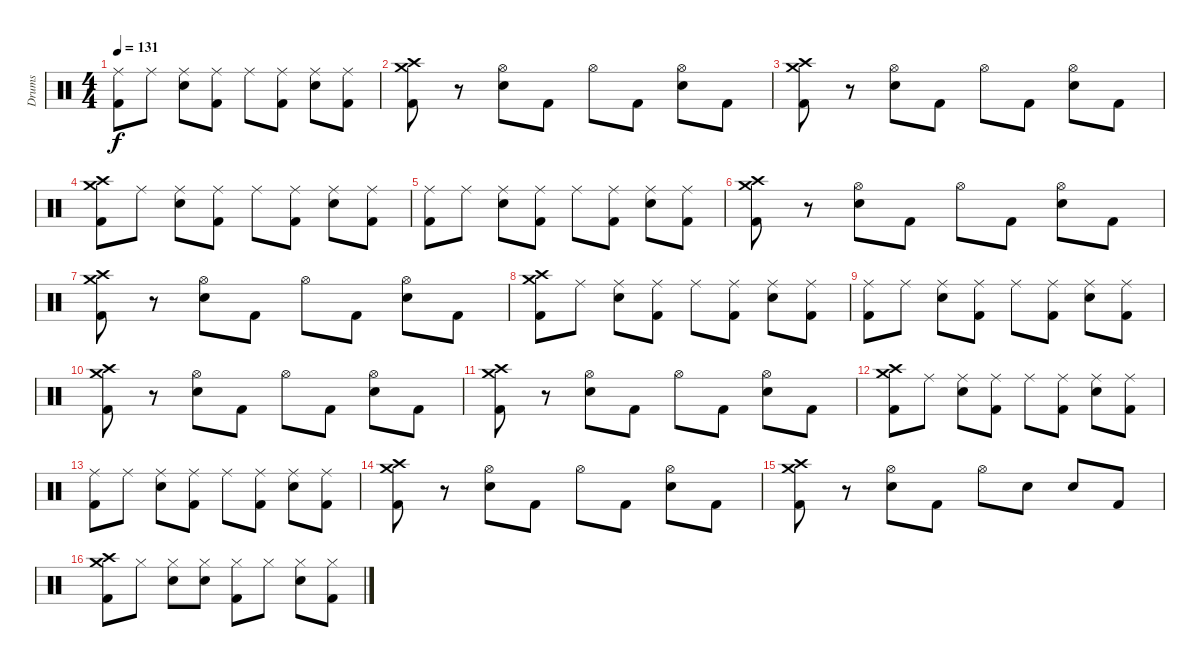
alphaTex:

\track ("Drums" "Drums") {instrument percussion}
\staff {score}
\articulation defaults
\ts (4 4)
\tempo 131
\clef neutral
\ks c
("Ride (middle)" "Kick (hit) 2").8{dy f} "Ride (middle)".8 ("Ride (middle)" "Snare (hit) 2").8 ("Ride (middle)" "Kick (hit) 2").8 "Ride (middle)".8 ("Ride (middle)" "Kick (hit) 2").8 ("Ride (middle)" "Snare (hit) 2").8 ("Ride (middle)" "Kick (hit) 2").8 |
("Crash high (hit)" "Crash medium (hit)" "Kick (hit) 2").8 r.8 ("Hi-Hat (open)" "Snare (hit) 2").8 "Kick (hit) 2".8 "Hi-Hat (open)".8 "Kick (hit) 2".8 ("Hi-Hat (open)" "Snare (hit) 2").8 "Kick (hit) 2".8 |
("Crash high (hit)" "Crash medium (hit)" "Kick (hit) 2").8 r.8 ("Hi-Hat (open)" "Snare (hit) 2").8 "Kick (hit) 2".8 "Hi-Hat (open)".8 "Kick (hit) 2".8 ("Hi-Hat (open)" "Snare (hit) 2").8 "Kick (hit) 2".8 |
("Crash high (hit)" "Crash medium (hit)" "Kick (hit) 2").8 "Ride (middle)".8 ("Ride (middle)" "Snare (hit) 2").8 ("Ride (middle)" "Kick (hit) 2").8 "Ride (middle)".8 ("Ride (middle)" "Kick (hit) 2").8 ("Ride (middle)" "Snare (hit) 2").8 ("Ride (middle)" "Kick (hit) 2").8 |
("Ride (middle)" "Kick (hit) 2").8 "Ride (middle)".8 ("Ride (middle)" "Snare (hit) 2").8 ("Ride (middle)" "Kick (hit) 2").8 "Ride (middle)".8 ("Ride (middle)" "Kick (hit) 2").8 ("Ride (middle)" "Snare (hit) 2").8 ("Ride (middle)" "Kick (hit) 2").8 |
("Crash high (hit)" "Crash medium (hit)" "Kick (hit) 2").8 r.8 ("Hi-Hat (open)" "Snare (hit) 2").8 "Kick (hit) 2".8 "Hi-Hat (open)".8 "Kick (hit) 2".8 ("Hi-Hat (open)" "Snare (hit) 2").8 "Kick (hit) 2".8 |
("Crash high (hit)" "Crash medium (hit)" "Kick (hit) 2").8 r.8 ("Hi-Hat (open)" "Snare (hit) 2").8 "Kick (hit) 2".8 "Hi-Hat (open)".8 "Kick (hit) 2".8 ("Hi-Hat (open)" "Snare (hit) 2").8 "Kick (hit) 2".8 |
("Crash high (hit)" "Crash medium (hit)" "Kick (hit) 2").8 "Ride (middle)".8 ("Ride (middle)" "Snare (hit) 2").8 ("Ride (middle)" "Kick (hit) 2").8 "Ride (middle)".8 ("Ride (middle)" "Kick (hit) 2").8 ("Ride (middle)" "Snare (hit) 2").8 ("Ride (middle)" "Kick (hit) 2").8 |
("Ride (middle)" "Kick (hit) 2").8 "Ride (middle)".8 ("Ride (middle)" "Snare (hit) 2").8 ("Ride (middle)" "Kick (hit) 2").8 "Ride (middle)".8 ("Ride (middle)" "Kick (hit) 2").8 ("Ride (middle)" "Snare (hit) 2").8 ("Ride (middle)" "Kick (hit) 2").8 |
("Crash high (hit)" "Crash medium (hit)" "Kick (hit) 2").8 r.8 ("Hi-Hat (open)" "Snare (hit) 2").8 "Kick (hit) 2".8 "Hi-Hat (open)".8 "Kick (hit) 2".8 ("Hi-Hat (open)" "Snare (hit) 2").8 "Kick (hit) 2".8 |
("Crash high (hit)" "Crash medium (hit)" "Kick (hit) 2").8 r.8 ("Hi-Hat (open)" "Snare (hit) 2").8 "Kick (hit) 2".8 "Hi-Hat (open)".8 "Kick (hit) 2".8 ("Hi-Hat (open)" "Snare (hit) 2").8 "Kick (hit) 2".8 |
("Crash high (hit)" "Crash medium (hit)" "Kick (hit) 2").8 "Ride (middle)".8 ("Ride (middle)" "Snare (hit) 2").8 ("Ride (middle)" "Kick (hit) 2").8 "Ride (middle)".8 ("Ride (middle)" "Kick (hit) 2").8 ("Ride (middle)" "Snare (hit) 2").8 ("Ride (middle)" "Kick (hit) 2").8 |
("Ride (middle)" "Kick (hit) 2").8 "Ride (middle)".8 ("Ride (middle)" "Snare (hit) 2").8 ("Ride (middle)" "Kick (hit) 2").8 "Ride (middle)".8 ("Ride (middle)" "Kick (hit) 2").8 ("Ride (middle)" "Snare (hit) 2").8 ("Ride (middle)" "Kick (hit) 2").8 |
("Crash high (hit)" "Crash medium (hit)" "Kick (hit) 2").8 r.8 ("Hi-Hat (open)" "Snare (hit) 2").8 "Kick (hit) 2".8 "Hi-Hat (open)".8 "Kick (hit) 2".8 ("Hi-Hat (open)" "Snare (hit) 2").8 "Kick (hit) 2".8 |
("Crash high (hit)" "Crash medium (hit)" "Kick (hit) 2").8 r.8 ("Hi-Hat (open)" "Snare (hit) 2").8 "Kick (hit) 2".8 "Hi-Hat (open)".8 "Snare (hit) 2".8 "Snare (hit) 2".8 "Kick (hit) 2".8 |
("Crash high (hit)" "Crash medium (hit)" "Kick (hit) 2").8 "Hi-Hat (closed)".8 ("Hi-Hat (closed)" "Snare (hit) 2").8 ("Hi-Hat (closed)" "Snare (hit) 2").8 ("Hi-Hat (closed)" "Kick (hit) 2").8 "Hi-Hat (closed)".8 ("Hi-Hat (closed)" "Snare (hit) 2").8 ("Hi-Hat (closed)" "Kick (hit) 2").8
